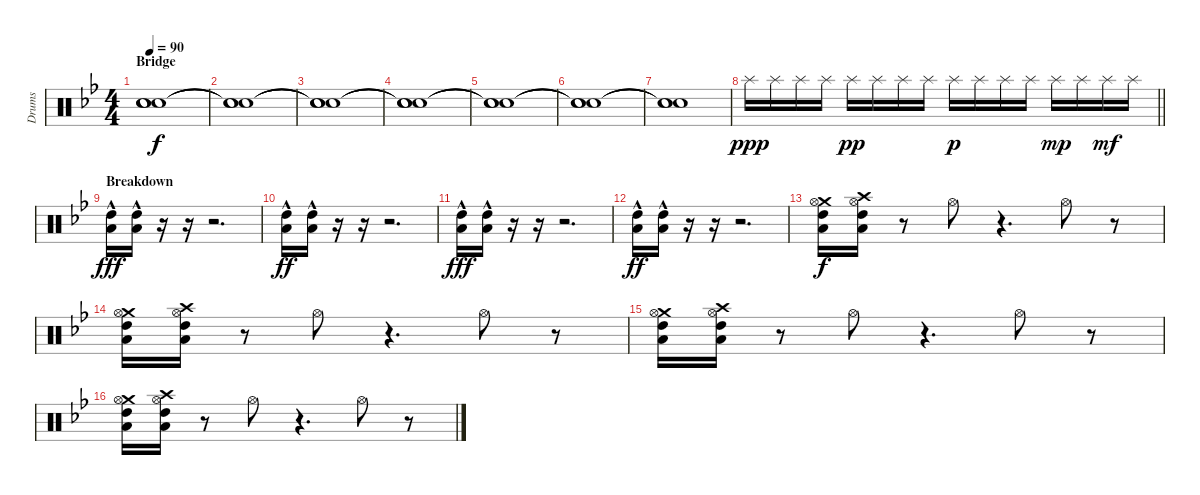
\track ("Drums" "Drums") {instrument percussion}
\staff {score}
\articulation defaults
\ts (4 4)
\section ("" "Bridge")
\tempo 90
\clef neutral
\ks gminor
("Snare (hit)"{t} "Snare (hit)"{t} "Snare (hit)"{t}).1{dy f} |
("Snare (hit)"{t} "Snare (hit)"{t} "Snare (hit)"{t}).1 |
("Snare (hit)"{t} "Snare (hit)"{t} "Snare (hit)"{t}).1 |
("Snare (hit)"{t} "Snare (hit)"{t} "Snare (hit)"{t}).1 |
("Snare (hit)"{t} "Snare (hit)"{t} "Snare (hit)"{t}).1 |
("Snare (hit)"{t} "Snare (hit)"{t} "Snare (hit)"{t}).1 |
("Snare (hit)"{t} "Snare (hit)"{t} "Snare (hit)"{t}).1 |
\barLineRight lightlight "Splash (hit)".16{dy ppp} "Splash (hit)".16 "Splash (hit)".16 "Splash (hit)".16 "Splash (hit)".16{dy pp} "Splash (hit)".16 "Splash (hit)".16 "Splash (hit)".16 "Splash (hit)".16{dy p} "Splash (hit)".16 "Splash (hit)".16 "Splash (hit)".16 "Splash (hit)".16{dy mp} "Splash (hit)".16 "Splash (hit)".16{dy mf} "Splash (hit)".16
|
\section ("" "Breakdown")
("Low Tom (hit)"{hac} "High Tom (hit)"{hac}).16{dy fff} ("Low Tom (hit)"{hac} "High Tom (hit)"{hac}).16 r.16 r.16 r.2{d} |
("Low Tom (hit)"{hac} "High Tom (hit)"{hac}).16{dy ff} ("Low Tom (hit)"{hac} "High Tom (hit)"{hac}).16 r.16 r.16 r.2{d} |
("Low Tom (hit)"{hac} "High Tom (hit)"{hac}).16{dy fff} ("Low Tom (hit)"{hac} "High Tom (hit)"{hac}).16 r.16 r.16 r.2{d} |
("Low Tom (hit)"{hac} "High Tom (hit)"{hac}).16{dy ff} ("Low Tom (hit)"{hac} "High Tom (hit)"{hac}).16 r.16 r.16 r.2{d} |
("Crash medium (hit)" "High Tom (hit)" "Low Tom (hit)" "Hi-Hat (open)").16{dy f} ("Crash high (hit)" "High Tom (hit)" "Low Tom (hit)" "Hi-Hat (open)").16 r.8 "Hi-Hat (open)".8 r.4{d} "Hi-Hat (open)".8 r.8 |
("Crash medium (hit)" "High Tom (hit)" "Low Tom (hit)" "Hi-Hat (open)").16 ("Crash high (hit)" "High Tom (hit)" "Low Tom (hit)" "Hi-Hat (open)").16 r.8 "Hi-Hat (open)".8 r.4{d} "Hi-Hat (open)".8 r.8 |
("Crash medium (hit)" "High Tom (hit)" "Low Tom (hit)" "Hi-Hat (open)").16 ("Crash high (hit)" "High Tom (hit)" "Low Tom (hit)" "Hi-Hat (open)").16 r.8 "Hi-Hat (open)".8 r.4{d} "Hi-Hat (open)".8 r.8 |
("Crash medium (hit)" "High Tom (hit)" "Low Tom (hit)" "Hi-Hat (open)").16 ("Crash high (hit)" "High Tom (hit)" "Low Tom (hit)" "Hi-Hat (open)").16 r.8 "Hi-Hat (open)".8 r.4{d} "Hi-Hat (open)".8 r.8
